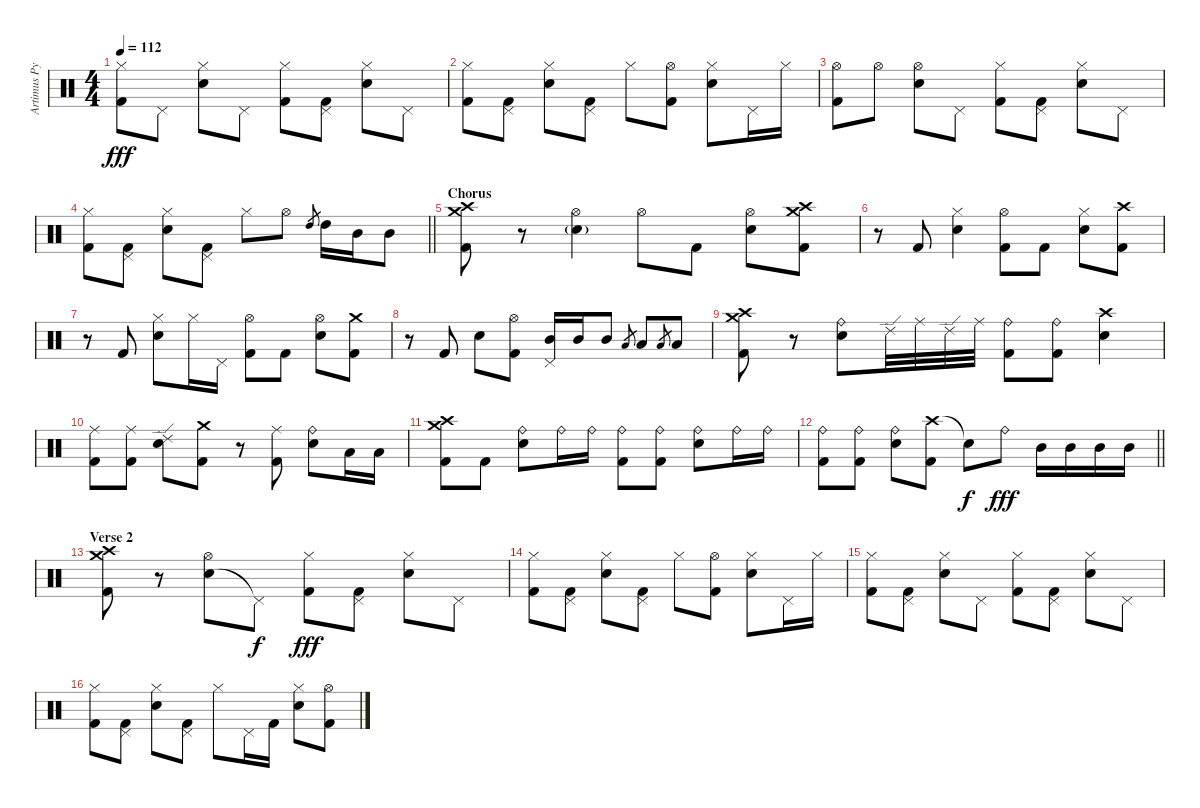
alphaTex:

\track ("Artimus Pyle" "Artimus Py") {instrument percussion}
\staff {score}
\articulation defaults
\ts (4 4)
\tempo 112
\clef neutral
\ks c
("Hi-Hat (closed)" "Kick (hit) 2").8{dy fff} "Pedal Hi-Hat (hit)".8 ("Snare (hit) 2" "Hi-Hat (closed)").8 "Pedal Hi-Hat (hit)".8 ("Hi-Hat (closed)" "Kick (hit) 2").8 ("Pedal Hi-Hat (hit)" "Kick (hit) 2").8 ("Snare (hit) 2" "Hi-Hat (closed)").8 "Pedal Hi-Hat (hit)".8 |
("Hi-Hat (closed)" "Kick (hit) 2").8 ("Pedal Hi-Hat (hit)" "Kick (hit) 2").8 ("Snare (hit) 2" "Hi-Hat (closed)").8 ("Pedal Hi-Hat (hit)" "Kick (hit) 2").8 "Hi-Hat (closed)".8 ("Hi-Hat (open)" "Kick (hit) 2").8 ("Snare (hit) 2" "Hi-Hat (closed)").8 "Pedal Hi-Hat (hit)".16 "Hi-Hat (closed)".16 |
("Hi-Hat (open)" "Kick (hit) 2").8 "Hi-Hat (open)".8 ("Snare (hit) 2" "Hi-Hat (open)").8 "Pedal Hi-Hat (hit)".8 ("Hi-Hat (closed)" "Kick (hit) 2").8 ("Pedal Hi-Hat (hit)" "Kick (hit) 2").8 ("Snare (hit) 2" "Hi-Hat (closed)").8 "Pedal Hi-Hat (hit)".8 |
\barLineRight lightlight
("Hi-Hat (closed)" "Kick (hit) 2").8 ("Pedal Hi-Hat (hit)" "Kick (hit) 2").8 ("Snare (hit) 2" "Hi-Hat (closed)").8 ("Pedal Hi-Hat (hit)" "Kick (hit) 2").8 "Hi-Hat (closed)".8 "Hi-Hat (open)".8 "High Tom (hit)".8{gr} "High Tom (hit)".16 "Mid Tom (hit)".16 "Mid Tom (hit)".8 |
\section ("" "Chorus")
("Crash medium (hit)" "Crash high (hit)" "Kick (hit) 2").8 r.8 ("Snare (hit) 2"{g} "Hi-Hat (open)").4 "Hi-Hat (open)".8 "Kick (hit) 2".8 ("Snare (hit) 2" "Hi-Hat (open)").8 ("Crash medium (hit)" "Crash high (hit)" "Kick (hit) 2").8 |
r.8 "Kick (hit) 2".8 ("Snare (hit) 2" "Hi-Hat (closed)").4 ("Hi-Hat (open)" "Kick (hit) 2").8 "Kick (hit) 2".8 ("Snare (hit) 2" "Hi-Hat (closed)").8 ("Crash high (hit)" "Kick (hit) 2").8 |
r.8 "Kick (hit) 2".8 ("Snare (hit) 2" "Hi-Hat (closed)").8 "Hi-Hat (closed)".16 "Pedal Hi-Hat (hit)".16 ("Hi-Hat (open)" "Kick (hit) 2").8 "Kick (hit) 2".8 ("Snare (hit) 2" "Hi-Hat (open)").8 ("Crash medium (hit)" "Kick (hit) 2").8 |
r.8 "Kick (hit) 2".8 "Snare (hit) 2".8 ("Hi-Hat (open)" "Kick (hit) 2").8 ("Mid Tom (hit)" "Pedal Hi-Hat (hit)").16 "Mid Tom (hit)".16 "Mid Tom (hit)".8 "Low Tom (hit)".8{gr} "Low Tom (hit)".8 "Low Tom (hit)".8{gr} "Low Tom (hit)".8 |
("Crash medium (hit)" "Crash high (hit)" "Kick (hit) 2").8 r.8 ("Ride (bell)" "Snare (hit) 2").8 "Ride (edge) 2".32 "Ride (middle)".32 "Ride (edge) 2".32 "Ride (middle)".32 ("Ride (bell)" "Kick (hit) 2").8 ("Ride (bell)" "Kick (hit) 2").8 ("Crash high (hit)" "Snare (hit) 2").4 |
("Ride (middle)" "Kick (hit) 2").8 ("Ride (middle)" "Kick (hit) 2").8 ("Ride (edge) 2" "Snare (hit) 2").8 ("Crash medium (hit)" "Kick (hit) 2").8 r.8 ("Ride (middle)" "Kick (hit) 2").8 ("Ride (bell)" "Snare (hit) 2").8 "Low Tom (hit)".16 "Low Tom (hit)".16 |
("Crash medium (hit)" "Crash high (hit)" "Kick (hit) 2").8 "Kick (hit) 2".8 ("Ride (bell)" "Snare (hit) 2").8 "Ride (bell)".16 "Ride (bell)".16 ("Ride (bell)" "Kick (hit) 2").8 ("Ride (bell)" "Kick (hit) 2").8 ("Ride (bell)" "Snare (hit) 2").8 "Ride (bell)".16 "Ride (bell)".16 |
\barLineRight lightlight
("Ride (bell)" "Kick (hit) 2").8 ("Ride (bell)" "Kick (hit) 2").8 ("Ride (bell)" "Snare (hit) 2").8 ("Crash high (hit)" "Kick (hit) 2").8 "Snare (hit)"{t}.8{dy f} "Ride (bell)".8{dy fff} "Mid Tom (hit)".16 "Mid Tom (hit)".16 "Mid Tom (hit)".16 "Mid Tom (hit)".16 |
\section ("" "Verse 2")
("Crash high (hit)" "Crash medium (hit)" "Kick (hit) 2").8 r.8 ("Snare (hit) 2" "Hi-Hat (open)").8 "Pedal Hi-Hat (hit)"{t}.8{dy f} ("Hi-Hat (closed)" "Kick (hit) 2").8{dy fff} ("Pedal Hi-Hat (hit)" "Kick (hit) 2").8 ("Snare (hit) 2" "Hi-Hat (closed)").8 "Pedal Hi-Hat (hit)".8 |
("Hi-Hat (closed)" "Kick (hit) 2").8 ("Pedal Hi-Hat (hit)" "Kick (hit) 2").8 ("Snare (hit) 2" "Hi-Hat (closed)").8 ("Pedal Hi-Hat (hit)" "Kick (hit) 2").8 "Hi-Hat (closed)".8 ("Hi-Hat (open)" "Kick (hit) 2").8 ("Snare (hit) 2" "Hi-Hat (closed)").8 "Pedal Hi-Hat (hit)".16 "Hi-Hat (closed)".16 |
("Hi-Hat (closed)" "Kick (hit) 2").8 ("Pedal Hi-Hat (hit)" "Kick (hit) 2").8 ("Snare (hit) 2" "Hi-Hat (closed)").8 "Pedal Hi-Hat (hit)".8 ("Hi-Hat (closed)" "Kick (hit) 2").8 ("Pedal Hi-Hat (hit)" "Kick (hit) 2").8 ("Snare (hit) 2" "Hi-Hat (closed)").8 "Pedal Hi-Hat (hit)".8 |
("Hi-Hat (closed)" "Kick (hit) 2").8 ("Pedal Hi-Hat (hit)" "Kick (hit) 2").8 ("Snare (hit) 2" "Hi-Hat (closed)").8 ("Pedal Hi-Hat (hit)" "Kick (hit) 2").8 "Hi-Hat (closed)".8 "Pedal Hi-Hat (hit)".16 "Kick (hit) 2".16 ("Snare (hit) 2" "Hi-Hat (closed)").8 ("Hi-Hat (open)" "Kick (hit) 2").8
